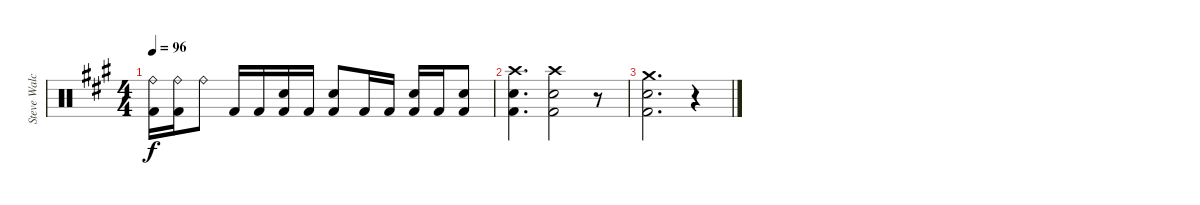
\track ("Steve Walchoz" "Steve Walc") {instrument percussion}
\staff {score}
\articulation defaults
\ts (4 4)
\tempo 96
\clef neutral
\ks a
("Ride (bell)" "Kick (hit) 2").16{dy f} ("Ride (bell)" "Kick (hit) 2").16 "Ride (bell)".8 "Kick (hit) 2".16 "Kick (hit) 2".16 ("Snare (hit) 2" "Kick (hit) 2").16 "Kick (hit) 2".16 ("Snare (hit) 2" "Kick (hit) 2").8 "Kick (hit) 2".16 "Kick (hit) 2".16 ("Snare (hit) 2" "Kick (hit) 2").16 "Kick (hit) 2".16 ("Snare (hit) 2" "Kick (hit) 2").8 |
("Crash high (hit)" "Snare (hit) 2" "Kick (hit) 2").4{d} ("Crash high (hit)" "Snare (hit) 2" "Kick (hit) 2").2 r.8 |
("Crash medium (hit)" "Snare (hit) 2" "Kick (hit) 2").2{d} r.4
